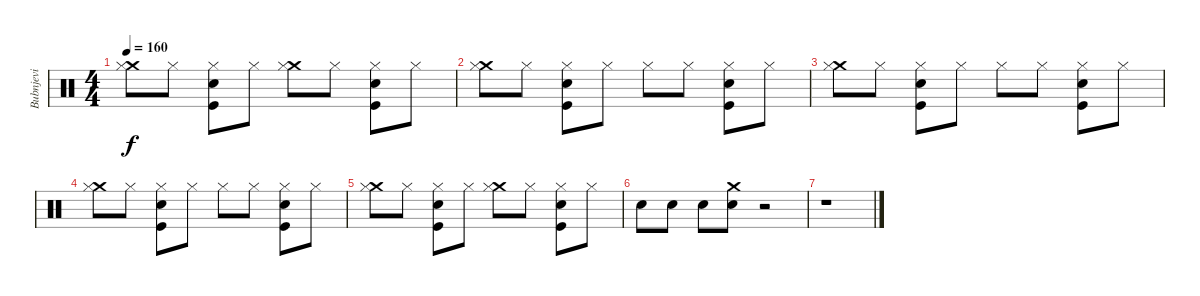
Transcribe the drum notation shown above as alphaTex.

\track ("Bubnjevi" "Bubnjevi") {instrument percussion}
\staff {score}
\articulation defaults
\ts (4 4)
\tempo 160
\clef neutral
\ks c
("Crash medium (hit)" "Hi-Hat (closed)").8{dy f} "Hi-Hat (closed)".8 ("Snare (hit) 2" "Hi-Hat (closed)" "Kick (hit)").8 "Hi-Hat (closed)".8 ("Crash medium (hit)" "Hi-Hat (closed)").8 "Hi-Hat (closed)".8 ("Snare (hit) 2" "Hi-Hat (closed)" "Kick (hit)").8 "Hi-Hat (closed)".8 |
("Crash medium (hit)" "Hi-Hat (closed)").8 "Hi-Hat (closed)".8 ("Snare (hit) 2" "Hi-Hat (closed)" "Kick (hit)").8 "Hi-Hat (closed)".8 "Hi-Hat (closed)".8 "Hi-Hat (closed)".8 ("Snare (hit) 2" "Hi-Hat (closed)" "Kick (hit)").8 "Hi-Hat (closed)".8 |
("Crash medium (hit)" "Hi-Hat (closed)").8 "Hi-Hat (closed)".8 ("Snare (hit) 2" "Hi-Hat (closed)" "Kick (hit)").8 "Hi-Hat (closed)".8 "Hi-Hat (closed)".8 "Hi-Hat (closed)".8 ("Snare (hit) 2" "Hi-Hat (closed)" "Kick (hit)").8 "Hi-Hat (closed)".8 |
("Crash medium (hit)" "Hi-Hat (closed)").8 "Hi-Hat (closed)".8 ("Snare (hit) 2" "Hi-Hat (closed)" "Kick (hit)").8 "Hi-Hat (closed)".8 "Hi-Hat (closed)".8 "Hi-Hat (closed)".8 ("Snare (hit) 2" "Hi-Hat (closed)" "Kick (hit)").8 "Hi-Hat (closed)".8 |
("Crash medium (hit)" "Hi-Hat (closed)").8 "Hi-Hat (closed)".8 ("Snare (hit) 2" "Hi-Hat (closed)" "Kick (hit)").8 "Hi-Hat (closed)".8 ("Crash medium (hit)" "Hi-Hat (closed)").8 "Hi-Hat (closed)".8 ("Snare (hit) 2" "Hi-Hat (closed)" "Kick (hit)").8 "Hi-Hat (closed)".8 |
"Snare (hit) 2".8 "Snare (hit) 2".8 "Snare (hit) 2".8 ("Crash medium (hit)" "Snare (hit) 2").8 r.2 |
r.1
